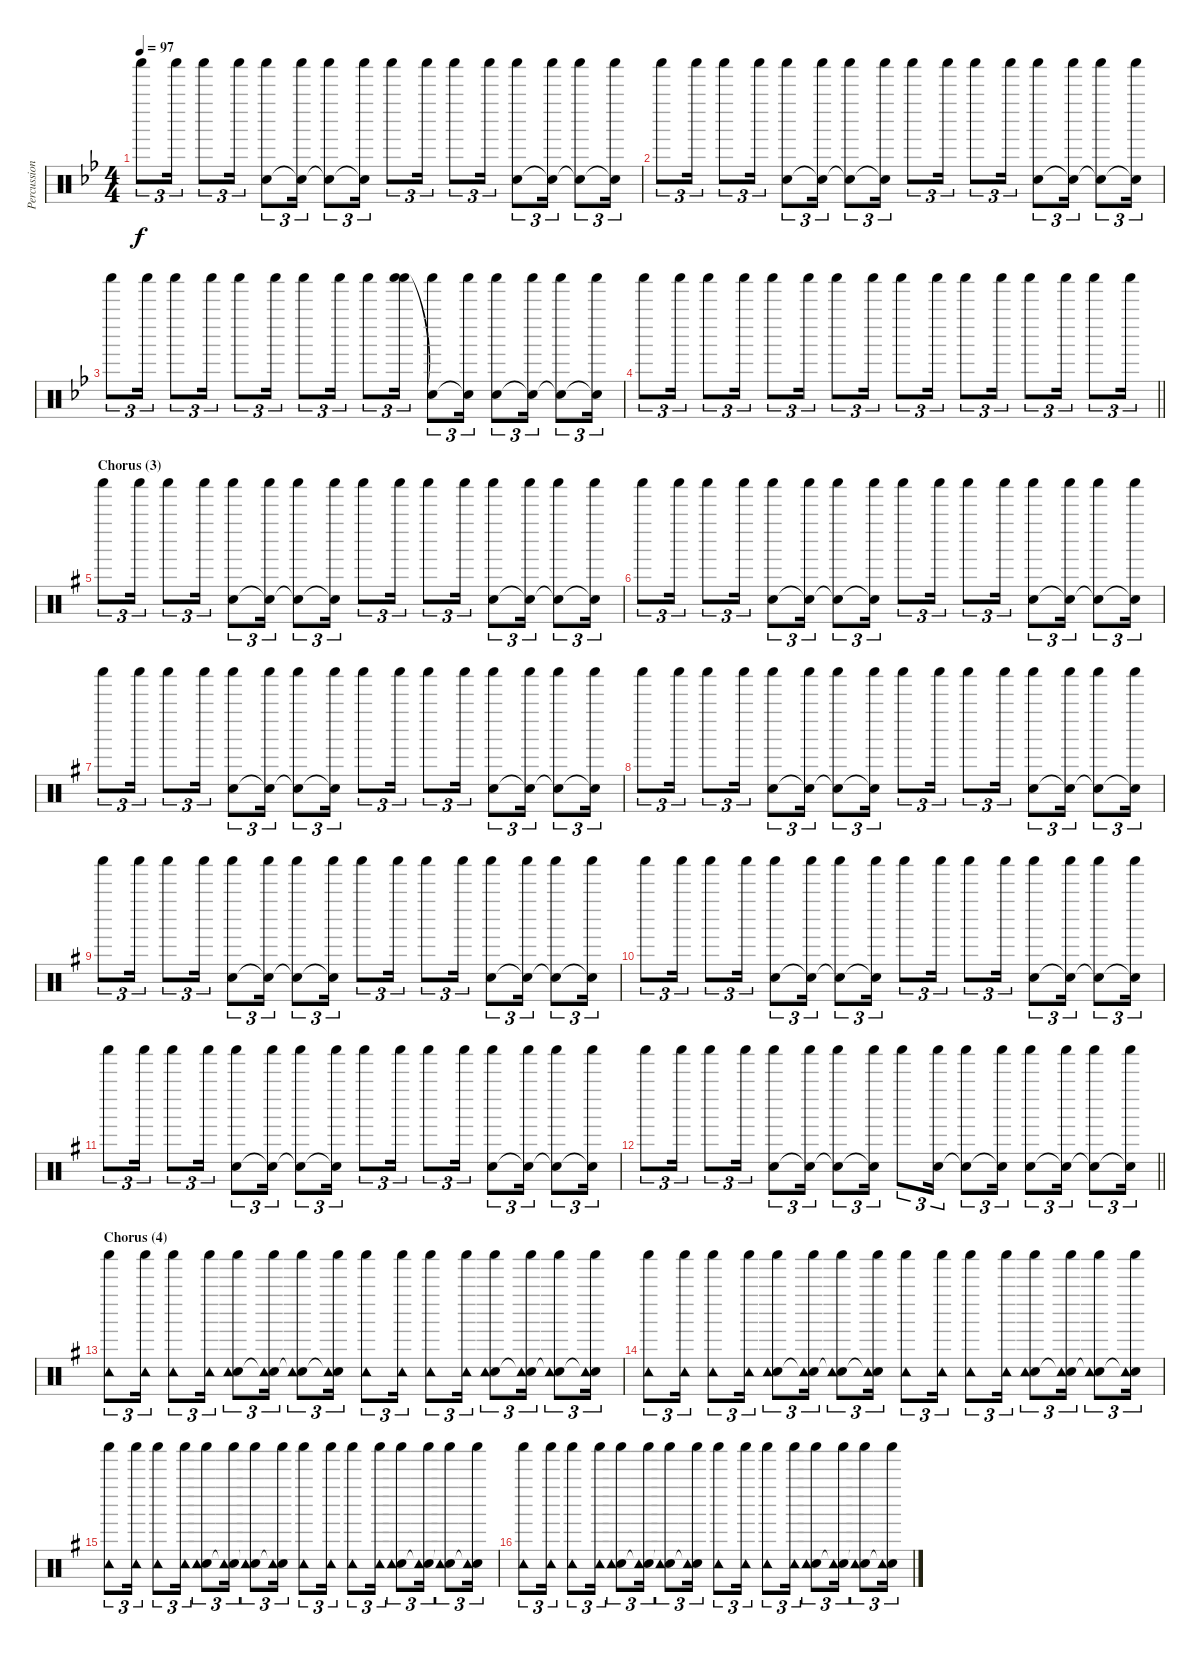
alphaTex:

\track ("Percussion" "Percussion") {instrument percussion}
\staff {score}
\articulation defaults
\ts (4 4)
\tempo 97
\clef neutral
\ks bb "Shaker (hit)".8{tu (3 2) dy f} "Shaker (hit)".16{tu (3 2)} "Shaker (hit)".8{tu (3 2)} "Shaker (hit)".16{tu (3 2)}
("Hand Clap (hit)" "Shaker (hit)").8{tu (3 2)} ("Snare (hit)"{t} "Shaker (hit)").16{tu (3 2)} ("Snare (hit)"{t} "Shaker (hit)").8{tu (3 2)} ("Snare (hit)"{t} "Shaker (hit)").16{tu (3 2)} "Shaker (hit)".8{tu (3 2)} "Shaker (hit)".16{tu (3 2)} "Shaker (hit)".8{tu (3 2)} "Shaker (hit)".16{tu (3 2)} ("Hand Clap (hit)" "Shaker (hit)").8{tu (3 2)} ("Snare (hit)"{t} "Shaker (hit)").16{tu (3 2)} ("Snare (hit)"{t} "Shaker (hit)").8{tu (3 2)} ("Snare (hit)"{t} "Shaker (hit)").16{tu (3 2)} |
"Shaker (hit)".8{tu (3 2)} "Shaker (hit)".16{tu (3 2)} "Shaker (hit)".8{tu (3 2)} "Shaker (hit)".16{tu (3 2)} ("Hand Clap (hit)" "Shaker (hit)").8{tu (3 2)} ("Snare (hit)"{t} "Shaker (hit)").16{tu (3 2)} ("Snare (hit)"{t} "Shaker (hit)").8{tu (3 2)} ("Snare (hit)"{t} "Shaker (hit)").16{tu (3 2)} "Shaker (hit)".8{tu (3 2)} "Shaker (hit)".16{tu (3 2)} "Shaker (hit)".8{tu (3 2)} "Shaker (hit)".16{tu (3 2)} ("Hand Clap (hit)" "Shaker (hit)").8{tu (3 2)} ("Snare (hit)"{t} "Shaker (hit)").16{tu (3 2)} ("Snare (hit)"{t} "Shaker (hit)").8{tu (3 2)} ("Snare (hit)"{t} "Shaker (hit)").16{tu (3 2)} |
"Shaker (hit)".8{tu (3 2)} "Shaker (hit)".16{tu (3 2)} "Shaker (hit)".8{tu (3 2)} "Shaker (hit)".16{tu (3 2)} "Shaker (hit)".8{tu (3 2)} "Shaker (hit)".16{tu (3 2)} "Shaker (hit)".8{tu (3 2)} "Shaker (hit)".16{tu (3 2)} "Shaker (hit)".8{tu (3 2)} ("Shaker (hit)" "Shaker (hit)").16{tu (3 2)} ("Snare (hit)"{t} "Shaker (hit)").8{tu (3 2)} ("Snare (hit)"{t} "Shaker (hit)").16{tu (3 2)} ("Hand Clap (hit)" "Shaker (hit)").8{tu (3 2)} ("Snare (hit)"{t} "Shaker (hit)").16{tu (3 2)} ("Snare (hit)"{t} "Shaker (hit)").8{tu (3 2)} ("Snare (hit)"{t} "Shaker (hit)").16{tu (3 2)} |
\barLineRight lightlight "Shaker (hit)".8{tu (3 2)} "Shaker (hit)".16{tu (3 2)} "Shaker (hit)".8{tu (3 2)} "Shaker (hit)".16{tu (3 2)} "Shaker (hit)".8{tu (3 2)} "Shaker (hit)".16{tu (3 2)} "Shaker (hit)".8{tu (3 2)} "Shaker (hit)".16{tu (3 2)} "Shaker (hit)".8{tu (3 2)} "Shaker (hit)".16{tu (3 2)} "Shaker (hit)".8{tu (3 2)} "Shaker (hit)".16{tu (3 2)} "Shaker (hit)".8{tu (3 2)} "Shaker (hit)".16{tu (3 2)} "Shaker (hit)".8{tu (3 2)} "Shaker (hit)".16{tu (3 2)}
|
\section ("" "Chorus (3)")
\ks g "Shaker (hit)".8{tu (3 2)} "Shaker (hit)".16{tu (3 2)} "Shaker (hit)".8{tu (3 2)} "Shaker (hit)".16{tu (3 2)}
("Hand Clap (hit)" "Shaker (hit)").8{tu (3 2)} ("Snare (hit)"{t} "Shaker (hit)").16{tu (3 2)} ("Snare (hit)"{t} "Shaker (hit)").8{tu (3 2)} ("Snare (hit)"{t} "Shaker (hit)").16{tu (3 2)} "Shaker (hit)".8{tu (3 2)} "Shaker (hit)".16{tu (3 2)} "Shaker (hit)".8{tu (3 2)} "Shaker (hit)".16{tu (3 2)} ("Hand Clap (hit)" "Shaker (hit)").8{tu (3 2)} ("Snare (hit)"{t} "Shaker (hit)").16{tu (3 2)} ("Snare (hit)"{t} "Shaker (hit)").8{tu (3 2)} ("Snare (hit)"{t} "Shaker (hit)").16{tu (3 2)} |
"Shaker (hit)".8{tu (3 2)} "Shaker (hit)".16{tu (3 2)} "Shaker (hit)".8{tu (3 2)} "Shaker (hit)".16{tu (3 2)} ("Hand Clap (hit)" "Shaker (hit)").8{tu (3 2)} ("Snare (hit)"{t} "Shaker (hit)").16{tu (3 2)} ("Snare (hit)"{t} "Shaker (hit)").8{tu (3 2)} ("Snare (hit)"{t} "Shaker (hit)").16{tu (3 2)} "Shaker (hit)".8{tu (3 2)} "Shaker (hit)".16{tu (3 2)} "Shaker (hit)".8{tu (3 2)} "Shaker (hit)".16{tu (3 2)} ("Hand Clap (hit)" "Shaker (hit)").8{tu (3 2)} ("Snare (hit)"{t} "Shaker (hit)").16{tu (3 2)} ("Snare (hit)"{t} "Shaker (hit)").8{tu (3 2)} ("Snare (hit)"{t} "Shaker (hit)").16{tu (3 2)} |
"Shaker (hit)".8{tu (3 2)} "Shaker (hit)".16{tu (3 2)} "Shaker (hit)".8{tu (3 2)} "Shaker (hit)".16{tu (3 2)} ("Hand Clap (hit)" "Shaker (hit)").8{tu (3 2)} ("Snare (hit)"{t} "Shaker (hit)").16{tu (3 2)} ("Snare (hit)"{t} "Shaker (hit)").8{tu (3 2)} ("Snare (hit)"{t} "Shaker (hit)").16{tu (3 2)} "Shaker (hit)".8{tu (3 2)} "Shaker (hit)".16{tu (3 2)} "Shaker (hit)".8{tu (3 2)} "Shaker (hit)".16{tu (3 2)} ("Hand Clap (hit)" "Shaker (hit)").8{tu (3 2)} ("Snare (hit)"{t} "Shaker (hit)").16{tu (3 2)} ("Snare (hit)"{t} "Shaker (hit)").8{tu (3 2)} ("Snare (hit)"{t} "Shaker (hit)").16{tu (3 2)} |
"Shaker (hit)".8{tu (3 2)} "Shaker (hit)".16{tu (3 2)} "Shaker (hit)".8{tu (3 2)} "Shaker (hit)".16{tu (3 2)} ("Hand Clap (hit)" "Shaker (hit)").8{tu (3 2)} ("Snare (hit)"{t} "Shaker (hit)").16{tu (3 2)} ("Snare (hit)"{t} "Shaker (hit)").8{tu (3 2)} ("Snare (hit)"{t} "Shaker (hit)").16{tu (3 2)} "Shaker (hit)".8{tu (3 2)} "Shaker (hit)".16{tu (3 2)} "Shaker (hit)".8{tu (3 2)} "Shaker (hit)".16{tu (3 2)} ("Hand Clap (hit)" "Shaker (hit)").8{tu (3 2)} ("Snare (hit)"{t} "Shaker (hit)").16{tu (3 2)} ("Snare (hit)"{t} "Shaker (hit)").8{tu (3 2)} ("Snare (hit)"{t} "Shaker (hit)").16{tu (3 2)} |
"Shaker (hit)".8{tu (3 2)} "Shaker (hit)".16{tu (3 2)} "Shaker (hit)".8{tu (3 2)} "Shaker (hit)".16{tu (3 2)} ("Hand Clap (hit)" "Shaker (hit)").8{tu (3 2)} ("Snare (hit)"{t} "Shaker (hit)").16{tu (3 2)} ("Snare (hit)"{t} "Shaker (hit)").8{tu (3 2)} ("Snare (hit)"{t} "Shaker (hit)").16{tu (3 2)} "Shaker (hit)".8{tu (3 2)} "Shaker (hit)".16{tu (3 2)} "Shaker (hit)".8{tu (3 2)} "Shaker (hit)".16{tu (3 2)} ("Hand Clap (hit)" "Shaker (hit)").8{tu (3 2)} ("Snare (hit)"{t} "Shaker (hit)").16{tu (3 2)} ("Snare (hit)"{t} "Shaker (hit)").8{tu (3 2)} ("Snare (hit)"{t} "Shaker (hit)").16{tu (3 2)} |
"Shaker (hit)".8{tu (3 2)} "Shaker (hit)".16{tu (3 2)} "Shaker (hit)".8{tu (3 2)} "Shaker (hit)".16{tu (3 2)} ("Hand Clap (hit)" "Shaker (hit)").8{tu (3 2)} ("Snare (hit)"{t} "Shaker (hit)").16{tu (3 2)} ("Snare (hit)"{t} "Shaker (hit)").8{tu (3 2)} ("Snare (hit)"{t} "Shaker (hit)").16{tu (3 2)} "Shaker (hit)".8{tu (3 2)} "Shaker (hit)".16{tu (3 2)} "Shaker (hit)".8{tu (3 2)} "Shaker (hit)".16{tu (3 2)} ("Hand Clap (hit)" "Shaker (hit)").8{tu (3 2)} ("Snare (hit)"{t} "Shaker (hit)").16{tu (3 2)} ("Snare (hit)"{t} "Shaker (hit)").8{tu (3 2)} ("Snare (hit)"{t} "Shaker (hit)").16{tu (3 2)} |
"Shaker (hit)".8{tu (3 2)} "Shaker (hit)".16{tu (3 2)} "Shaker (hit)".8{tu (3 2)} "Shaker (hit)".16{tu (3 2)} ("Hand Clap (hit)" "Shaker (hit)").8{tu (3 2)} ("Snare (hit)"{t} "Shaker (hit)").16{tu (3 2)} ("Snare (hit)"{t} "Shaker (hit)").8{tu (3 2)} ("Snare (hit)"{t} "Shaker (hit)").16{tu (3 2)} "Shaker (hit)".8{tu (3 2)} "Shaker (hit)".16{tu (3 2)} "Shaker (hit)".8{tu (3 2)} "Shaker (hit)".16{tu (3 2)} ("Hand Clap (hit)" "Shaker (hit)").8{tu (3 2)} ("Snare (hit)"{t} "Shaker (hit)").16{tu (3 2)} ("Snare (hit)"{t} "Shaker (hit)").8{tu (3 2)} ("Snare (hit)"{t} "Shaker (hit)").16{tu (3 2)} |
\barLineRight lightlight "Shaker (hit)".8{tu (3 2)} "Shaker (hit)".16{tu (3 2)} "Shaker (hit)".8{tu (3 2)} "Shaker (hit)".16{tu (3 2)}
("Hand Clap (hit)" "Shaker (hit)").8{tu (3 2)} ("Snare (hit)"{t} "Shaker (hit)").16{tu (3 2)} ("Snare (hit)"{t} "Shaker (hit)").8{tu (3 2)} ("Snare (hit)"{t} "Shaker (hit)").16{tu (3 2)} "Shaker (hit)".8{tu (3 2)} ("Hand Clap (hit)" "Shaker (hit)").16{tu (3 2)} ("Snare (hit)"{t} "Shaker (hit)").8{tu (3 2)} ("Snare (hit)"{t} "Shaker (hit)").16{tu (3 2)} ("Hand Clap (hit)" "Shaker (hit)").8{tu (3 2)} ("Snare (hit)"{t} "Shaker (hit)").16{tu (3 2)} ("Snare (hit)"{t} "Shaker (hit)").8{tu (3 2)} ("Snare (hit)"{t} "Shaker (hit)").16{tu (3 2)} |
\section ("" "Chorus (4)")
("Shaker (hit)" "Tambourine (hit)").8{tu (3 2)} ("Shaker (hit)" "Tambourine (hit)").16{tu (3 2)} ("Shaker (hit)" "Tambourine (hit)").8{tu (3 2)} ("Shaker (hit)" "Tambourine (hit)").16{tu (3 2)} ("Hand Clap (hit)" "Shaker (hit)" "Tambourine (hit)").8{tu (3 2)} ("Snare (hit)"{t} "Shaker (hit)" "Tambourine (hit)").16{tu (3 2)} ("Snare (hit)"{t} "Shaker (hit)" "Tambourine (hit)").8{tu (3 2)} ("Snare (hit)"{t} "Shaker (hit)" "Tambourine (hit)").16{tu (3 2)} ("Shaker (hit)" "Tambourine (hit)").8{tu (3 2)} ("Shaker (hit)" "Tambourine (hit)").16{tu (3 2)} ("Shaker (hit)" "Tambourine (hit)").8{tu (3 2)} ("Shaker (hit)" "Tambourine (hit)").16{tu (3 2)} ("Hand Clap (hit)" "Shaker (hit)" "Tambourine (hit)").8{tu (3 2)} ("Snare (hit)"{t} "Shaker (hit)" "Tambourine (hit)").16{tu (3 2)} ("Snare (hit)"{t} "Shaker (hit)" "Tambourine (hit)").8{tu (3 2)} ("Snare (hit)"{t} "Shaker (hit)" "Tambourine (hit)").16{tu (3 2)} |
("Shaker (hit)" "Tambourine (hit)").8{tu (3 2)} ("Shaker (hit)" "Tambourine (hit)").16{tu (3 2)} ("Shaker (hit)" "Tambourine (hit)").8{tu (3 2)} ("Shaker (hit)" "Tambourine (hit)").16{tu (3 2)} ("Hand Clap (hit)" "Shaker (hit)" "Tambourine (hit)").8{tu (3 2)} ("Snare (hit)"{t} "Shaker (hit)" "Tambourine (hit)").16{tu (3 2)} ("Snare (hit)"{t} "Shaker (hit)" "Tambourine (hit)").8{tu (3 2)} ("Snare (hit)"{t} "Shaker (hit)" "Tambourine (hit)").16{tu (3 2)} ("Shaker (hit)" "Tambourine (hit)").8{tu (3 2)} ("Shaker (hit)" "Tambourine (hit)").16{tu (3 2)} ("Shaker (hit)" "Tambourine (hit)").8{tu (3 2)} ("Shaker (hit)" "Tambourine (hit)").16{tu (3 2)} ("Hand Clap (hit)" "Shaker (hit)" "Tambourine (hit)").8{tu (3 2)} ("Snare (hit)"{t} "Shaker (hit)" "Tambourine (hit)").16{tu (3 2)} ("Snare (hit)"{t} "Shaker (hit)" "Tambourine (hit)").8{tu (3 2)} ("Snare (hit)"{t} "Shaker (hit)" "Tambourine (hit)").16{tu (3 2)} |
("Shaker (hit)" "Tambourine (hit)").8{tu (3 2)} ("Shaker (hit)" "Tambourine (hit)").16{tu (3 2)} ("Shaker (hit)" "Tambourine (hit)").8{tu (3 2)} ("Shaker (hit)" "Tambourine (hit)").16{tu (3 2)} ("Hand Clap (hit)" "Shaker (hit)" "Tambourine (hit)").8{tu (3 2)} ("Snare (hit)"{t} "Shaker (hit)" "Tambourine (hit)").16{tu (3 2)} ("Snare (hit)"{t} "Shaker (hit)" "Tambourine (hit)").8{tu (3 2)} ("Snare (hit)"{t} "Shaker (hit)" "Tambourine (hit)").16{tu (3 2)} ("Shaker (hit)" "Tambourine (hit)").8{tu (3 2)} ("Shaker (hit)" "Tambourine (hit)").16{tu (3 2)} ("Shaker (hit)" "Tambourine (hit)").8{tu (3 2)} ("Shaker (hit)" "Tambourine (hit)").16{tu (3 2)} ("Hand Clap (hit)" "Shaker (hit)" "Tambourine (hit)").8{tu (3 2)} ("Snare (hit)"{t} "Shaker (hit)" "Tambourine (hit)").16{tu (3 2)} ("Snare (hit)"{t} "Shaker (hit)" "Tambourine (hit)").8{tu (3 2)} ("Snare (hit)"{t} "Shaker (hit)" "Tambourine (hit)").16{tu (3 2)} |
("Shaker (hit)" "Tambourine (hit)").8{tu (3 2)} ("Shaker (hit)" "Tambourine (hit)").16{tu (3 2)} ("Shaker (hit)" "Tambourine (hit)").8{tu (3 2)} ("Shaker (hit)" "Tambourine (hit)").16{tu (3 2)} ("Hand Clap (hit)" "Shaker (hit)" "Tambourine (hit)").8{tu (3 2)} ("Snare (hit)"{t} "Shaker (hit)" "Tambourine (hit)").16{tu (3 2)} ("Snare (hit)"{t} "Shaker (hit)" "Tambourine (hit)").8{tu (3 2)} ("Snare (hit)"{t} "Shaker (hit)" "Tambourine (hit)").16{tu (3 2)} ("Shaker (hit)" "Tambourine (hit)").8{tu (3 2)} ("Shaker (hit)" "Tambourine (hit)").16{tu (3 2)} ("Shaker (hit)" "Tambourine (hit)").8{tu (3 2)} ("Shaker (hit)" "Tambourine (hit)").16{tu (3 2)} ("Hand Clap (hit)" "Shaker (hit)" "Tambourine (hit)").8{tu (3 2)} ("Snare (hit)"{t} "Shaker (hit)" "Tambourine (hit)").16{tu (3 2)} ("Snare (hit)"{t} "Shaker (hit)" "Tambourine (hit)").8{tu (3 2)} ("Snare (hit)"{t} "Shaker (hit)" "Tambourine (hit)").16{tu (3 2)}
